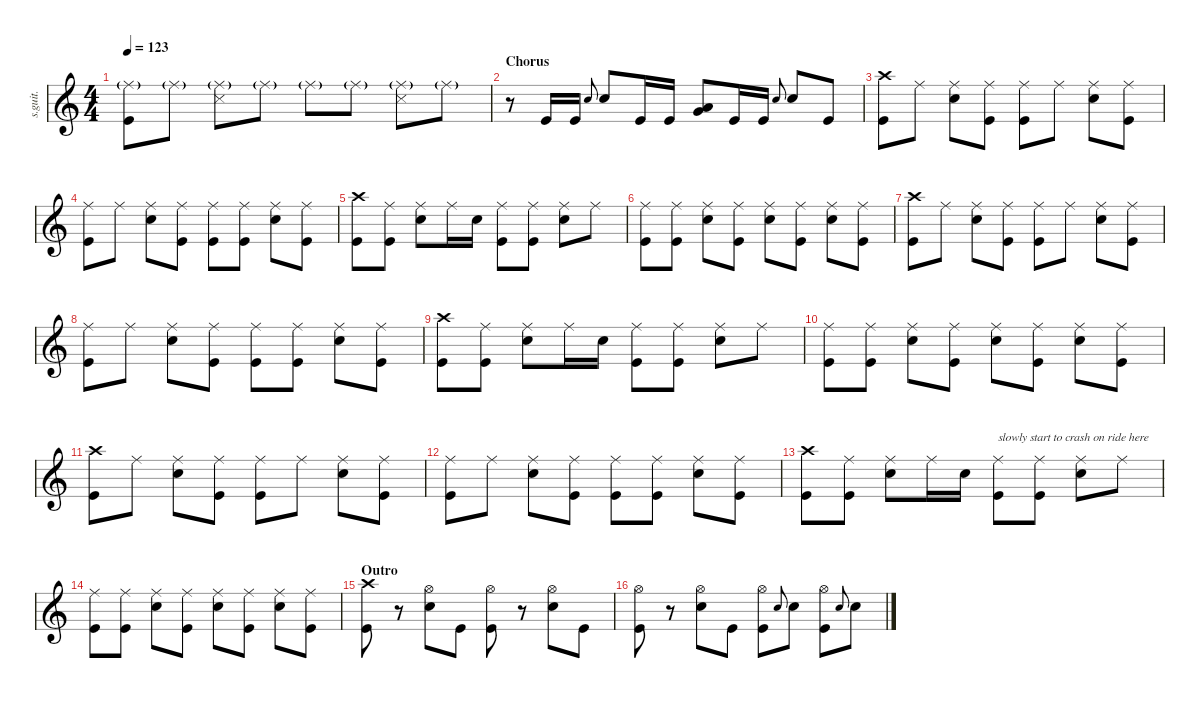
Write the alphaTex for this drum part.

\defaultSystemsLayout 4
\hideDynamics
\bracketExtendMode nobrackets
\track ("Dave Grohl" "s.guit.") {instrument percussion}
\staff {score}
\articulation defaults
\ts (4 4)
\tempo 123
\clef g2
\ks c
("Ride (middle)"{g} "Kick (hit)").8{lyrics (0 "") lyrics (1 "") lyrics (2 "") lyrics (3 "") lyrics (4 "") dy f} "Ride (middle)"{g}.8{lyrics (0 "") lyrics (1 "") lyrics (2 "") lyrics (3 "") lyrics (4 "") dy fff} ("Ride (middle)"{g} "Snare (side stick) 3").8{lyrics (0 "") lyrics (1 "") lyrics (2 "") lyrics (3 "") lyrics (4 "") dy f} "Ride (middle)"{g}.8{lyrics (0 "") lyrics (1 "") lyrics (2 "") lyrics (3 "") lyrics (4 "") dy fff} "Ride (middle)"{g}.8{lyrics (0 "") lyrics (1 "") lyrics (2 "") lyrics (3 "") lyrics (4 "")} "Ride (middle)"{g}.8{lyrics (0 "") lyrics (1 "") lyrics (2 "") lyrics (3 "") lyrics (4 "")} ("Ride (middle)"{g} "Snare (side stick) 3").8{lyrics (0 "") lyrics (1 "") lyrics (2 "") lyrics (3 "") lyrics (4 "") dy f} "Ride (middle)"{g}.8{lyrics (0 "") lyrics (1 "") lyrics (2 "") lyrics (3 "") lyrics (4 "") dy fff} |
\section ("" "Chorus")
r.8 "Kick (hit)".16{lyrics (0 "") lyrics (1 "") lyrics (2 "") lyrics (3 "") lyrics (4 "") dy ff} "Kick (hit)".16{lyrics (0 "") lyrics (1 "") lyrics (2 "") lyrics (3 "") lyrics (4 "")} "Snare (hit) 2".8{lyrics (0 "") lyrics (1 "") lyrics (2 "") lyrics (3 "") lyrics (4 "") gr onbeat} "Snare (hit) 2".8{lyrics (0 "") lyrics (1 "") lyrics (2 "") lyrics (3 "") lyrics (4 "")} "Kick (hit)".16{lyrics (0 "") lyrics (1 "") lyrics (2 "") lyrics (3 "") lyrics (4 "")} "Kick (hit)".16{lyrics (0 "") lyrics (1 "") lyrics (2 "") lyrics (3 "") lyrics (4 "")} ("Very Low Tom (hit)" "Low Tom (hit)").8{lyrics (0 "") lyrics (1 "") lyrics (2 "") lyrics (3 "") lyrics (4 "")} "Kick (hit)".16{lyrics (0 "") lyrics (1 "") lyrics (2 "") lyrics (3 "") lyrics (4 "")} "Kick (hit)".16{lyrics (0 "") lyrics (1 "") lyrics (2 "") lyrics (3 "") lyrics (4 "")} "Snare (hit) 2".8{lyrics (0 "") lyrics (1 "") lyrics (2 "") lyrics (3 "") lyrics (4 "") gr onbeat} "Snare (hit) 2".8{lyrics (0 "") lyrics (1 "") lyrics (2 "") lyrics (3 "") lyrics (4 "")} "Kick (hit)".8{lyrics (0 "") lyrics (1 "") lyrics (2 "") lyrics (3 "") lyrics (4 "")} |
("Crash high (hit)" "Kick (hit)").8{lyrics (0 "") lyrics (1 "") lyrics (2 "") lyrics (3 "") lyrics (4 "")} "Ride (middle)".8{lyrics (0 "") lyrics (1 "") lyrics (2 "") lyrics (3 "") lyrics (4 "")} ("Ride (middle)" "Snare (hit) 2").8{lyrics (0 "") lyrics (1 "") lyrics (2 "") lyrics (3 "") lyrics (4 "")} ("Kick (hit)" "Ride (middle)").8{lyrics (0 "") lyrics (1 "") lyrics (2 "") lyrics (3 "") lyrics (4 "")} ("Ride (middle)" "Kick (hit)").8{lyrics (0 "") lyrics (1 "") lyrics (2 "") lyrics (3 "") lyrics (4 "")} "Ride (middle)".8{lyrics (0 "") lyrics (1 "") lyrics (2 "") lyrics (3 "") lyrics (4 "")} ("Ride (middle)" "Snare (hit) 2").8{lyrics (0 "") lyrics (1 "") lyrics (2 "") lyrics (3 "") lyrics (4 "")} ("Kick (hit)" "Ride (middle)").8{lyrics (0 "") lyrics (1 "") lyrics (2 "") lyrics (3 "") lyrics (4 "")} |
("Ride (middle)" "Kick (hit)").8{lyrics (0 "") lyrics (1 "") lyrics (2 "") lyrics (3 "") lyrics (4 "")} "Ride (middle)".8{lyrics (0 "") lyrics (1 "") lyrics (2 "") lyrics (3 "") lyrics (4 "")} ("Ride (middle)" "Snare (hit) 2").8{lyrics (0 "") lyrics (1 "") lyrics (2 "") lyrics (3 "") lyrics (4 "")} ("Kick (hit)" "Ride (middle)").8{lyrics (0 "") lyrics (1 "") lyrics (2 "") lyrics (3 "") lyrics (4 "")} ("Ride (middle)" "Kick (hit)").8{lyrics (0 "") lyrics (1 "") lyrics (2 "") lyrics (3 "") lyrics (4 "")} ("Ride (middle)" "Kick (hit)").8{lyrics (0 "") lyrics (1 "") lyrics (2 "") lyrics (3 "") lyrics (4 "")} ("Ride (middle)" "Snare (hit) 2").8{lyrics (0 "") lyrics (1 "") lyrics (2 "") lyrics (3 "") lyrics (4 "")} ("Kick (hit)" "Ride (middle)").8{lyrics (0 "") lyrics (1 "") lyrics (2 "") lyrics (3 "") lyrics (4 "")} |
("Crash high (hit)" "Kick (hit)").8{lyrics (0 "") lyrics (1 "") lyrics (2 "") lyrics (3 "") lyrics (4 "")} ("Kick (hit)" "Ride (middle)").8{lyrics (0 "") lyrics (1 "") lyrics (2 "") lyrics (3 "") lyrics (4 "")} ("Ride (middle)" "Snare (hit) 2").8{lyrics (0 "") lyrics (1 "") lyrics (2 "") lyrics (3 "") lyrics (4 "")} "Ride (middle)".16{lyrics (0 "") lyrics (1 "") lyrics (2 "") lyrics (3 "") lyrics (4 "")} "Snare (hit) 2".16{lyrics (0 "") lyrics (1 "") lyrics (2 "") lyrics (3 "") lyrics (4 "") dy mf} ("Ride (middle)" "Kick (hit)").8{lyrics (0 "") lyrics (1 "") lyrics (2 "") lyrics (3 "") lyrics (4 "") dy ff} ("Ride (middle)" "Kick (hit)").8{lyrics (0 "") lyrics (1 "") lyrics (2 "") lyrics (3 "") lyrics (4 "")} ("Ride (middle)" "Snare (hit) 2").8{lyrics (0 "") lyrics (1 "") lyrics (2 "") lyrics (3 "") lyrics (4 "")} "Ride (middle)".8{lyrics (0 "") lyrics (1 "") lyrics (2 "") lyrics (3 "") lyrics (4 "")} |
("Ride (middle)" "Kick (hit)").8{lyrics (0 "") lyrics (1 "") lyrics (2 "") lyrics (3 "") lyrics (4 "")} ("Kick (hit)" "Ride (middle)").8{lyrics (0 "") lyrics (1 "") lyrics (2 "") lyrics (3 "") lyrics (4 "")} ("Snare (hit) 2" "Ride (middle)").8{lyrics (0 "") lyrics (1 "") lyrics (2 "") lyrics (3 "") lyrics (4 "")} ("Kick (hit)" "Ride (middle)").8{lyrics (0 "") lyrics (1 "") lyrics (2 "") lyrics (3 "") lyrics (4 "")} ("Snare (hit) 2" "Ride (middle)").8{lyrics (0 "") lyrics (1 "") lyrics (2 "") lyrics (3 "") lyrics (4 "")} ("Ride (middle)" "Kick (hit)").8{lyrics (0 "") lyrics (1 "") lyrics (2 "") lyrics (3 "") lyrics (4 "")} ("Snare (hit) 2" "Ride (middle)").8{lyrics (0 "") lyrics (1 "") lyrics (2 "") lyrics (3 "") lyrics (4 "")} ("Kick (hit)" "Ride (middle)").8{lyrics (0 "") lyrics (1 "") lyrics (2 "") lyrics (3 "") lyrics (4 "")} |
("Crash high (hit)" "Kick (hit)").8{lyrics (0 "") lyrics (1 "") lyrics (2 "") lyrics (3 "") lyrics (4 "")} "Ride (middle)".8{lyrics (0 "") lyrics (1 "") lyrics (2 "") lyrics (3 "") lyrics (4 "")} ("Ride (middle)" "Snare (hit) 2").8{lyrics (0 "") lyrics (1 "") lyrics (2 "") lyrics (3 "") lyrics (4 "")} ("Kick (hit)" "Ride (middle)").8{lyrics (0 "") lyrics (1 "") lyrics (2 "") lyrics (3 "") lyrics (4 "")} ("Ride (middle)" "Kick (hit)").8{lyrics (0 "") lyrics (1 "") lyrics (2 "") lyrics (3 "") lyrics (4 "")} "Ride (middle)".8{lyrics (0 "") lyrics (1 "") lyrics (2 "") lyrics (3 "") lyrics (4 "")} ("Ride (middle)" "Snare (hit) 2").8{lyrics (0 "") lyrics (1 "") lyrics (2 "") lyrics (3 "") lyrics (4 "")} ("Kick (hit)" "Ride (middle)").8{lyrics (0 "") lyrics (1 "") lyrics (2 "") lyrics (3 "") lyrics (4 "")} |
("Ride (middle)" "Kick (hit)").8{lyrics (0 "") lyrics (1 "") lyrics (2 "") lyrics (3 "") lyrics (4 "")} "Ride (middle)".8{lyrics (0 "") lyrics (1 "") lyrics (2 "") lyrics (3 "") lyrics (4 "")} ("Ride (middle)" "Snare (hit) 2").8{lyrics (0 "") lyrics (1 "") lyrics (2 "") lyrics (3 "") lyrics (4 "")} ("Kick (hit)" "Ride (middle)").8{lyrics (0 "") lyrics (1 "") lyrics (2 "") lyrics (3 "") lyrics (4 "")} ("Ride (middle)" "Kick (hit)").8{lyrics (0 "") lyrics (1 "") lyrics (2 "") lyrics (3 "") lyrics (4 "")} ("Ride (middle)" "Kick (hit)").8{lyrics (0 "") lyrics (1 "") lyrics (2 "") lyrics (3 "") lyrics (4 "")} ("Ride (middle)" "Snare (hit) 2").8{lyrics (0 "") lyrics (1 "") lyrics (2 "") lyrics (3 "") lyrics (4 "")} ("Kick (hit)" "Ride (middle)").8{lyrics (0 "") lyrics (1 "") lyrics (2 "") lyrics (3 "") lyrics (4 "")} |
("Crash high (hit)" "Kick (hit)").8{lyrics (0 "") lyrics (1 "") lyrics (2 "") lyrics (3 "") lyrics (4 "")} ("Kick (hit)" "Ride (middle)").8{lyrics (0 "") lyrics (1 "") lyrics (2 "") lyrics (3 "") lyrics (4 "")} ("Ride (middle)" "Snare (hit) 2").8{lyrics (0 "") lyrics (1 "") lyrics (2 "") lyrics (3 "") lyrics (4 "")} "Ride (middle)".16{lyrics (0 "") lyrics (1 "") lyrics (2 "") lyrics (3 "") lyrics (4 "")} "Snare (hit) 2".16{lyrics (0 "") lyrics (1 "") lyrics (2 "") lyrics (3 "") lyrics (4 "") dy mf} ("Ride (middle)" "Kick (hit)").8{lyrics (0 "") lyrics (1 "") lyrics (2 "") lyrics (3 "") lyrics (4 "") dy ff} ("Ride (middle)" "Kick (hit)").8{lyrics (0 "") lyrics (1 "") lyrics (2 "") lyrics (3 "") lyrics (4 "")} ("Ride (middle)" "Snare (hit) 2").8{lyrics (0 "") lyrics (1 "") lyrics (2 "") lyrics (3 "") lyrics (4 "")} "Ride (middle)".8{lyrics (0 "") lyrics (1 "") lyrics (2 "") lyrics (3 "") lyrics (4 "")} |
("Ride (middle)" "Kick (hit)").8{lyrics (0 "") lyrics (1 "") lyrics (2 "") lyrics (3 "") lyrics (4 "")} ("Kick (hit)" "Ride (middle)").8{lyrics (0 "") lyrics (1 "") lyrics (2 "") lyrics (3 "") lyrics (4 "")} ("Snare (hit) 2" "Ride (middle)").8{lyrics (0 "") lyrics (1 "") lyrics (2 "") lyrics (3 "") lyrics (4 "")} ("Kick (hit)" "Ride (middle)").8{lyrics (0 "") lyrics (1 "") lyrics (2 "") lyrics (3 "") lyrics (4 "")} ("Snare (hit) 2" "Ride (middle)").8{lyrics (0 "") lyrics (1 "") lyrics (2 "") lyrics (3 "") lyrics (4 "")} ("Ride (middle)" "Kick (hit)").8{lyrics (0 "") lyrics (1 "") lyrics (2 "") lyrics (3 "") lyrics (4 "")} ("Snare (hit) 2" "Ride (middle)").8{lyrics (0 "") lyrics (1 "") lyrics (2 "") lyrics (3 "") lyrics (4 "")} ("Kick (hit)" "Ride (middle)").8{lyrics (0 "") lyrics (1 "") lyrics (2 "") lyrics (3 "") lyrics (4 "")} |
("Crash high (hit)" "Kick (hit)").8{lyrics (0 "") lyrics (1 "") lyrics (2 "") lyrics (3 "") lyrics (4 "")} "Ride (middle)".8{lyrics (0 "") lyrics (1 "") lyrics (2 "") lyrics (3 "") lyrics (4 "")} ("Ride (middle)" "Snare (hit) 2").8{lyrics (0 "") lyrics (1 "") lyrics (2 "") lyrics (3 "") lyrics (4 "")} ("Kick (hit)" "Ride (middle)").8{lyrics (0 "") lyrics (1 "") lyrics (2 "") lyrics (3 "") lyrics (4 "")} ("Ride (middle)" "Kick (hit)").8{lyrics (0 "") lyrics (1 "") lyrics (2 "") lyrics (3 "") lyrics (4 "")} "Ride (middle)".8{lyrics (0 "") lyrics (1 "") lyrics (2 "") lyrics (3 "") lyrics (4 "")} ("Ride (middle)" "Snare (hit) 2").8{lyrics (0 "") lyrics (1 "") lyrics (2 "") lyrics (3 "") lyrics (4 "")} ("Kick (hit)" "Ride (middle)").8{lyrics (0 "") lyrics (1 "") lyrics (2 "") lyrics (3 "") lyrics (4 "")} |
("Ride (middle)" "Kick (hit)").8{lyrics (0 "") lyrics (1 "") lyrics (2 "") lyrics (3 "") lyrics (4 "")} "Ride (middle)".8{lyrics (0 "") lyrics (1 "") lyrics (2 "") lyrics (3 "") lyrics (4 "")} ("Ride (middle)" "Snare (hit) 2").8{lyrics (0 "") lyrics (1 "") lyrics (2 "") lyrics (3 "") lyrics (4 "")} ("Kick (hit)" "Ride (middle)").8{lyrics (0 "") lyrics (1 "") lyrics (2 "") lyrics (3 "") lyrics (4 "")} ("Ride (middle)" "Kick (hit)").8{lyrics (0 "") lyrics (1 "") lyrics (2 "") lyrics (3 "") lyrics (4 "")} ("Ride (middle)" "Kick (hit)").8{lyrics (0 "") lyrics (1 "") lyrics (2 "") lyrics (3 "") lyrics (4 "")} ("Ride (middle)" "Snare (hit) 2").8{lyrics (0 "") lyrics (1 "") lyrics (2 "") lyrics (3 "") lyrics (4 "")} ("Kick (hit)" "Ride (middle)").8{lyrics (0 "") lyrics (1 "") lyrics (2 "") lyrics (3 "") lyrics (4 "")} |
("Crash high (hit)" "Kick (hit)").8{lyrics (0 "") lyrics (1 "") lyrics (2 "") lyrics (3 "") lyrics (4 "")} ("Kick (hit)" "Ride (middle)").8{lyrics (0 "") lyrics (1 "") lyrics (2 "") lyrics (3 "") lyrics (4 "")} ("Ride (middle)" "Snare (hit) 2").8{lyrics (0 "") lyrics (1 "") lyrics (2 "") lyrics (3 "") lyrics (4 "")} "Ride (middle)".16{lyrics (0 "") lyrics (1 "") lyrics (2 "") lyrics (3 "") lyrics (4 "")} "Snare (hit) 2".16{lyrics (0 "") lyrics (1 "") lyrics (2 "") lyrics (3 "") lyrics (4 "") dy mf} ("Ride (middle)" "Kick (hit)").8{txt "slowly start to crash on ride here" lyrics (0 "") lyrics (1 "") lyrics (2 "") lyrics (3 "") lyrics (4 "") dy ff} ("Ride (middle)" "Kick (hit)").8{lyrics (0 "") lyrics (1 "") lyrics (2 "") lyrics (3 "") lyrics (4 "")} ("Ride (middle)" "Snare (hit) 2").8{lyrics (0 "") lyrics (1 "") lyrics (2 "") lyrics (3 "") lyrics (4 "")} "Ride (middle)".8{lyrics (0 "") lyrics (1 "") lyrics (2 "") lyrics (3 "") lyrics (4 "")} |
("Ride (middle)" "Kick (hit)").8{lyrics (0 "") lyrics (1 "") lyrics (2 "") lyrics (3 "") lyrics (4 "")} ("Kick (hit)" "Ride (middle)").8{lyrics (0 "") lyrics (1 "") lyrics (2 "") lyrics (3 "") lyrics (4 "")} ("Snare (hit) 2" "Ride (middle)").8{lyrics (0 "") lyrics (1 "") lyrics (2 "") lyrics (3 "") lyrics (4 "")} ("Kick (hit)" "Ride (middle)").8{lyrics (0 "") lyrics (1 "") lyrics (2 "") lyrics (3 "") lyrics (4 "")} ("Snare (hit) 2" "Ride (middle)").8{lyrics (0 "") lyrics (1 "") lyrics (2 "") lyrics (3 "") lyrics (4 "")} ("Ride (middle)" "Kick (hit)").8{lyrics (0 "") lyrics (1 "") lyrics (2 "") lyrics (3 "") lyrics (4 "")} ("Snare (hit) 2" "Ride (middle)").8{lyrics (0 "") lyrics (1 "") lyrics (2 "") lyrics (3 "") lyrics (4 "")} ("Kick (hit)" "Ride (middle)").8{lyrics (0 "") lyrics (1 "") lyrics (2 "") lyrics (3 "") lyrics (4 "")} |
\section ("" "Outro")
("Crash high (hit)" "Kick (hit)").8{lyrics (0 "") lyrics (1 "") lyrics (2 "") lyrics (3 "") lyrics (4 "") dy fff} r.8 ("Hi-Hat (open)" "Snare (hit) 2").8{lyrics (0 "") lyrics (1 "") lyrics (2 "") lyrics (3 "") lyrics (4 "")} "Kick (hit)".8{lyrics (0 "") lyrics (1 "") lyrics (2 "") lyrics (3 "") lyrics (4 "")} ("Hi-Hat (open)" "Kick (hit)").8{lyrics (0 "") lyrics (1 "") lyrics (2 "") lyrics (3 "") lyrics (4 "")} r.8 ("Hi-Hat (open)" "Snare (hit) 2").8{lyrics (0 "") lyrics (1 "") lyrics (2 "") lyrics (3 "") lyrics (4 "")} "Kick (hit)".8{lyrics (0 "") lyrics (1 "") lyrics (2 "") lyrics (3 "") lyrics (4 "")} |
("Hi-Hat (open)" "Kick (hit)").8{lyrics (0 "") lyrics (1 "") lyrics (2 "") lyrics (3 "") lyrics (4 "")} r.8 ("Hi-Hat (open)" "Snare (hit) 2").8{lyrics (0 "") lyrics (1 "") lyrics (2 "") lyrics (3 "") lyrics (4 "")} "Kick (hit)".8{lyrics (0 "") lyrics (1 "") lyrics (2 "") lyrics (3 "") lyrics (4 "")} ("Hi-Hat (open)" "Kick (hit)").8{lyrics (0 "") lyrics (1 "") lyrics (2 "") lyrics (3 "") lyrics (4 "")} "Snare (hit) 2".8{lyrics (0 "") lyrics (1 "") lyrics (2 "") lyrics (3 "") lyrics (4 "") gr onbeat} "Snare (hit) 2".8{lyrics (0 "") lyrics (1 "") lyrics (2 "") lyrics (3 "") lyrics (4 "")} ("Hi-Hat (open)" "Kick (hit)").8{lyrics (0 "") lyrics (1 "") lyrics (2 "") lyrics (3 "") lyrics (4 "")} "Snare (hit) 2".8{lyrics (0 "") lyrics (1 "") lyrics (2 "") lyrics (3 "") lyrics (4 "") gr onbeat} "Snare (hit) 2".8{lyrics (0 "") lyrics (1 "") lyrics (2 "") lyrics (3 "") lyrics (4 "")}
